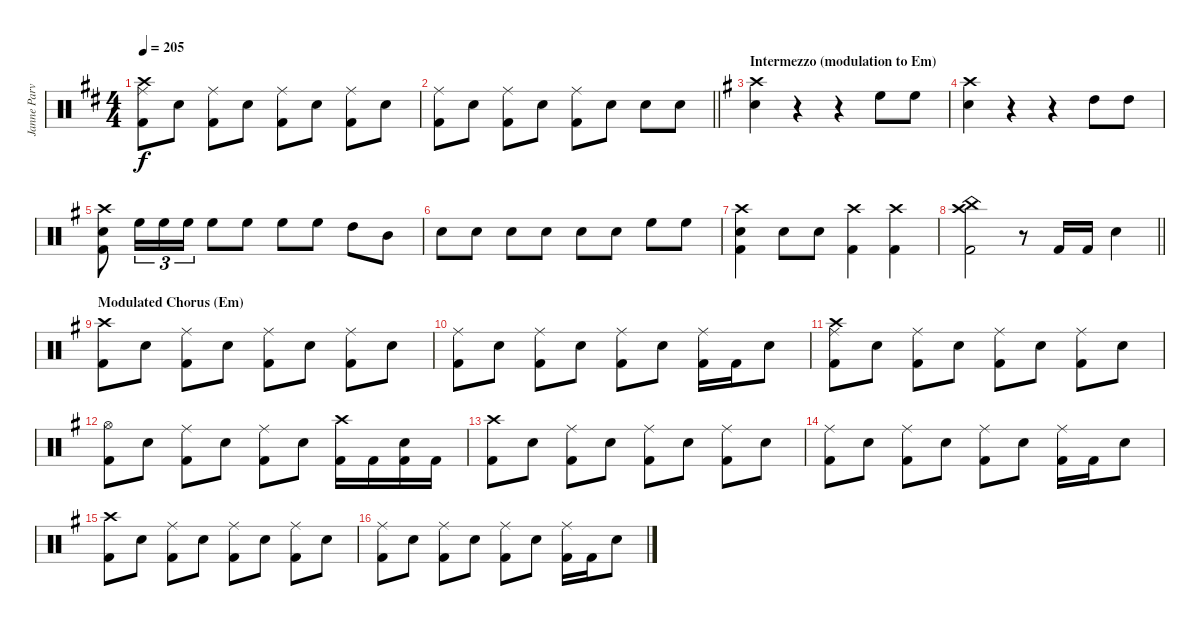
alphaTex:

\track ("Janne Parviainen" "Janne Parv") {instrument percussion}
\staff {score}
\articulation defaults
\ts (4 4)
\tempo 205
\clef neutral
\ks bminor
("Crash high (hit)" "Ride (middle)" "Kick (hit) 2").8{dy f} "Electric Snare (hit)".8 ("Ride (middle)" "Kick (hit) 2").8 "Electric Snare (hit)".8 ("Ride (middle)" "Kick (hit) 2").8 "Electric Snare (hit)".8 ("Ride (middle)" "Kick (hit) 2").8 "Electric Snare (hit)".8 |
\barLineRight lightlight
("Ride (middle)" "Kick (hit) 2").8 "Electric Snare (hit)".8 ("Ride (middle)" "Kick (hit) 2").8 "Electric Snare (hit)".8 ("Ride (middle)" "Kick (hit) 2").8 "Electric Snare (hit)".8 "Electric Snare (hit)".8 "Electric Snare (hit)".8 |
\section ("" "Intermezzo (modulation to Em)")
\ks eminor
("Crash high (hit)" "Snare (hit) 2").4 r.4 r.4 "High Floor Tom (hit)".8 "High Floor Tom (hit)".8 |
("Crash high (hit)" "Snare (hit) 2").4 r.4 r.4 "High Tom (hit)".8 "High Tom (hit)".8 |
("Crash high (hit)" "Snare (hit) 2" "Kick (hit) 2").8{volume 16} "High Floor Tom (hit)".16{tu (3 2)} "High Floor Tom (hit)".16{tu (3 2)} "High Floor Tom (hit)".16{tu (3 2)} "High Floor Tom (hit)".8 "High Floor Tom (hit)".8 "High Floor Tom (hit)".8 "High Floor Tom (hit)".8 "High Tom (hit)".8 "Mid Tom (hit)".8 |
"Snare (hit) 2".8 "Snare (hit) 2".8 "Snare (hit) 2".8 "Snare (hit) 2".8 "Snare (hit) 2".8 "Snare (hit) 2".8 "High Floor Tom (hit)".8 "High Floor Tom (hit)".8 |
("Crash high (hit)" "Snare (hit) 2" "Kick (hit) 2").4 "Electric Snare (hit)".8 "Electric Snare (hit)".8 ("Crash high (hit)" "Kick (hit) 2").4 ("Crash high (hit)" "Kick (hit) 2").4 |
\barLineRight lightlight
("China (hit)" "Crash high (hit)" "Kick (hit) 2").2 r.8 "Kick (hit) 2".16 "Kick (hit) 2".16 "Snare (hit) 2".4 |
\section ("" "Modulated Chorus (Em)")
("Crash high (hit)" "Kick (hit) 2").8 "Electric Snare (hit)".8 ("Ride (middle)" "Kick (hit) 2").8 "Electric Snare (hit)".8 ("Ride (middle)" "Kick (hit) 2").8 "Electric Snare (hit)".8 ("Ride (middle)" "Kick (hit) 2").8 "Electric Snare (hit)".8 |
("Ride (middle)" "Kick (hit) 2").8 "Electric Snare (hit)".8 ("Ride (middle)" "Kick (hit) 2").8 "Electric Snare (hit)".8 ("Ride (middle)" "Kick (hit) 2").8 "Electric Snare (hit)".8 ("Ride (middle)" "Kick (hit) 2").16 "Kick (hit) 2".16 "Electric Snare (hit)".8 |
("Crash high (hit)" "Ride (middle)" "Kick (hit) 2").8 "Electric Snare (hit)".8 ("Ride (middle)" "Kick (hit) 2").8 "Electric Snare (hit)".8 ("Ride (middle)" "Kick (hit) 2").8 "Electric Snare (hit)".8 ("Ride (middle)" "Kick (hit) 2").8 "Electric Snare (hit)".8 |
("Hi-Hat (open)" "Kick (hit) 2").8 "Electric Snare (hit)".8 ("Ride (middle)" "Kick (hit) 2").8 "Electric Snare (hit)".8 ("Ride (middle)" "Kick (hit) 2").8 "Electric Snare (hit)".8 ("Crash high (hit)" "Kick (hit) 2").16 "Kick (hit) 2".16 ("Electric Snare (hit)" "Kick (hit) 2").16 "Kick (hit) 2".16 |
("Crash high (hit)" "Kick (hit) 2").8 "Electric Snare (hit)".8 ("Ride (middle)" "Kick (hit) 2").8 "Electric Snare (hit)".8 ("Ride (middle)" "Kick (hit) 2").8 "Electric Snare (hit)".8 ("Ride (middle)" "Kick (hit) 2").8 "Electric Snare (hit)".8 |
("Ride (middle)" "Kick (hit) 2").8 "Electric Snare (hit)".8 ("Ride (middle)" "Kick (hit) 2").8 "Electric Snare (hit)".8 ("Ride (middle)" "Kick (hit) 2").8 "Electric Snare (hit)".8 ("Ride (middle)" "Kick (hit) 2").16 "Kick (hit) 2".16 "Electric Snare (hit)".8 |
("Crash high (hit)" "Kick (hit) 2").8 "Electric Snare (hit)".8 ("Ride (middle)" "Kick (hit) 2").8 "Electric Snare (hit)".8 ("Ride (middle)" "Kick (hit) 2").8 "Electric Snare (hit)".8 ("Ride (middle)" "Kick (hit) 2").8 "Electric Snare (hit)".8 |
("Ride (middle)" "Kick (hit) 2").8 "Electric Snare (hit)".8 ("Ride (middle)" "Kick (hit) 2").8 "Electric Snare (hit)".8 ("Ride (middle)" "Kick (hit) 2").8 "Electric Snare (hit)".8 ("Ride (middle)" "Kick (hit) 2").16 "Kick (hit) 2".16 "Electric Snare (hit)".8
